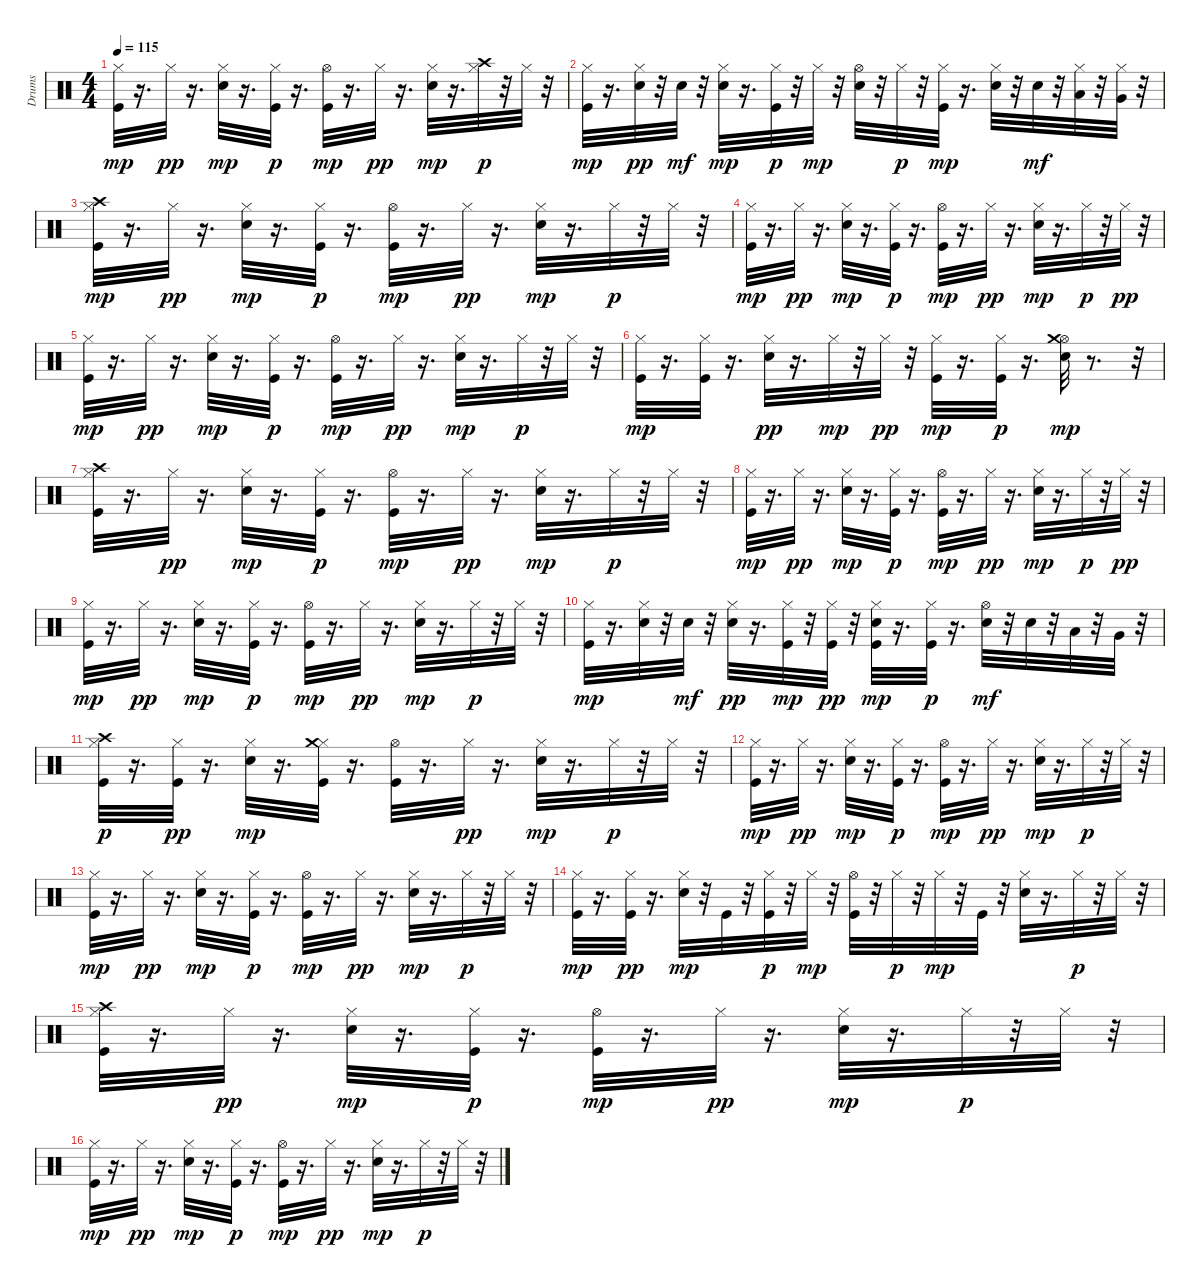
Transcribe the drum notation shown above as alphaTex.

\track ("Drums" "Drums") {instrument percussion}
\staff {score}
\articulation defaults
\ts (4 4)
\tempo 115
\clef neutral
\ks c
("Kick (hit)" "Hi-Hat (closed)").32{dy mp} r.16{d} "Hi-Hat (closed)".32{dy pp} r.16{d} ("Electric Snare (hit)" "Hi-Hat (closed)").32{dy mp} r.16{d} ("Kick (hit)" "Hi-Hat (closed)").32{dy p} r.16{d} ("Kick (hit)" "Hi-Hat (open)").32{dy mp} r.16{d} "Hi-Hat (closed)".32{dy pp} r.16{d} ("Electric Snare (hit)" "Hi-Hat (closed)").32{dy mp} r.16{d} ("Hi-Hat (closed)" "Crash high (hit)").32{dy p} r.32 "Hi-Hat (closed)".32 r.32 |
("Kick (hit)" "Hi-Hat (closed)").32{dy mp} r.16{d} ("Electric Snare (hit)" "Hi-Hat (closed)").32{dy pp} r.32 "Electric Snare (hit)".32{dy mf} r.32 ("Electric Snare (hit)" "Hi-Hat (closed)").32{dy mp} r.16{d} ("Kick (hit)" "Hi-Hat (closed)").32{dy p} r.32 "Hi-Hat (closed)".32{dy mp} r.32 ("Electric Snare (hit)" "Hi-Hat (open)").32 r.32 "Hi-Hat (closed)".32{dy p} r.32 ("Kick (hit)" "Hi-Hat (closed)").32{dy mp} r.16{d} ("Electric Snare (hit)" "Hi-Hat (closed)").32 r.32 "Electric Snare (hit)".32{dy mf} r.32 ("Hi-Hat (closed)" "Low Tom (hit)").32 r.32 ("Hi-Hat (closed)" "Very Low Tom (hit)").32 r.32 |
("Kick (hit)" "Hi-Hat (closed)" "Crash high (hit)").32{dy mp} r.16{d} "Hi-Hat (closed)".32{dy pp} r.16{d} ("Electric Snare (hit)" "Hi-Hat (closed)").32{dy mp} r.16{d} ("Kick (hit)" "Hi-Hat (closed)").32{dy p} r.16{d} ("Kick (hit)" "Hi-Hat (open)").32{dy mp} r.16{d} "Hi-Hat (closed)".32{dy pp} r.16{d} ("Electric Snare (hit)" "Hi-Hat (closed)").32{dy mp} r.16{d} "Hi-Hat (closed)".32{dy p} r.32 "Hi-Hat (closed)".32 r.32 |
("Kick (hit)" "Hi-Hat (closed)").32{dy mp} r.16{d} "Hi-Hat (closed)".32{dy pp} r.16{d} ("Electric Snare (hit)" "Hi-Hat (closed)").32{dy mp} r.16{d} ("Kick (hit)" "Hi-Hat (closed)").32{dy p} r.16{d} ("Kick (hit)" "Hi-Hat (open)").32{dy mp} r.16{d} "Hi-Hat (closed)".32{dy pp} r.16{d} ("Electric Snare (hit)" "Hi-Hat (closed)").32{dy mp} r.16{d} "Hi-Hat (closed)".32{dy p} r.32 "Hi-Hat (closed)".32{dy pp} r.32 |
("Kick (hit)" "Hi-Hat (closed)").32{dy mp} r.16{d} "Hi-Hat (closed)".32{dy pp} r.16{d} ("Electric Snare (hit)" "Hi-Hat (closed)").32{dy mp} r.16{d} ("Kick (hit)" "Hi-Hat (closed)").32{dy p} r.16{d} ("Kick (hit)" "Hi-Hat (open)").32{dy mp} r.16{d} "Hi-Hat (closed)".32{dy pp} r.16{d} ("Electric Snare (hit)" "Hi-Hat (closed)").32{dy mp} r.16{d} "Hi-Hat (closed)".32{dy p} r.32 "Hi-Hat (closed)".32 r.32 |
("Kick (hit)" "Hi-Hat (closed)").32{dy mp} r.16{d} ("Kick (hit)" "Hi-Hat (closed)").32 r.16{d} ("Electric Snare (hit)" "Hi-Hat (closed)").32{dy pp} r.16{d} "Hi-Hat (closed)".32{dy mp} r.32 "Hi-Hat (closed)".32{dy pp} r.32 ("Kick (hit)" "Hi-Hat (closed)").32{dy mp} r.16{d} ("Kick (hit)" "Hi-Hat (closed)").32{dy p} r.16{d} ("Electric Snare (hit)" "Hi-Hat (open)" "Crash medium (hit)").32{dy mp} r.8{d} r.32 |
("Kick (hit)" "Hi-Hat (closed)" "Crash high (hit)").32 r.16{d} "Hi-Hat (closed)".32{dy pp} r.16{d} ("Electric Snare (hit)" "Hi-Hat (closed)").32{dy mp} r.16{d} ("Kick (hit)" "Hi-Hat (closed)").32{dy p} r.16{d} ("Kick (hit)" "Hi-Hat (open)").32{dy mp} r.16{d} "Hi-Hat (closed)".32{dy pp} r.16{d} ("Electric Snare (hit)" "Hi-Hat (closed)").32{dy mp} r.16{d} "Hi-Hat (closed)".32{dy p} r.32 "Hi-Hat (closed)".32 r.32 |
("Kick (hit)" "Hi-Hat (closed)").32{dy mp} r.16{d} "Hi-Hat (closed)".32{dy pp} r.16{d} ("Electric Snare (hit)" "Hi-Hat (closed)").32{dy mp} r.16{d} ("Kick (hit)" "Hi-Hat (closed)").32{dy p} r.16{d} ("Kick (hit)" "Hi-Hat (open)").32{dy mp} r.16{d} "Hi-Hat (closed)".32{dy pp} r.16{d} ("Electric Snare (hit)" "Hi-Hat (closed)").32{dy mp} r.16{d} "Hi-Hat (closed)".32{dy p} r.32 "Hi-Hat (closed)".32{dy pp} r.32 |
("Kick (hit)" "Hi-Hat (closed)").32{dy mp} r.16{d} "Hi-Hat (closed)".32{dy pp} r.16{d} ("Electric Snare (hit)" "Hi-Hat (closed)").32{dy mp} r.16{d} ("Kick (hit)" "Hi-Hat (closed)").32{dy p} r.16{d} ("Kick (hit)" "Hi-Hat (open)").32{dy mp} r.16{d} "Hi-Hat (closed)".32{dy pp} r.16{d} ("Electric Snare (hit)" "Hi-Hat (closed)").32{dy mp} r.16{d} "Hi-Hat (closed)".32{dy p} r.32 "Hi-Hat (closed)".32 r.32 |
("Kick (hit)" "Hi-Hat (closed)").32{dy mp} r.16{d} ("Electric Snare (hit)" "Hi-Hat (closed)").32 r.32 "Electric Snare (hit)".32{dy mf} r.32 ("Electric Snare (hit)" "Hi-Hat (closed)").32{dy pp} r.16{d} ("Kick (hit)" "Hi-Hat (closed)").32{dy mp} r.32 ("Kick (hit)" "Hi-Hat (closed)").32{dy pp} r.32 ("Kick (hit)" "Electric Snare (hit)" "Hi-Hat (closed)").32{dy mp} r.16{d} ("Kick (hit)" "Hi-Hat (closed)").32{dy p} r.16{d} ("Electric Snare (hit)" "Hi-Hat (open)").32{dy mf} r.32 "Electric Snare (hit)".32 r.32 "Low Tom (hit)".32 r.32 "Very Low Tom (hit)".32 r.32 |
("Kick (hit)" "Hi-Hat (closed)" "Crash high (hit)").32{dy p} r.16{d} ("Kick (hit)" "Hi-Hat (closed)").32{dy pp} r.16{d} ("Electric Snare (hit)" "Hi-Hat (closed)").32{dy mp} r.16{d} ("Kick (hit)" "Hi-Hat (closed)" "Crash medium (hit)").32 r.16{d} ("Kick (hit)" "Hi-Hat (open)").32 r.16{d} "Hi-Hat (closed)".32{dy pp} r.16{d} ("Electric Snare (hit)" "Hi-Hat (closed)").32{dy mp} r.16{d} "Hi-Hat (closed)".32{dy p} r.32 "Hi-Hat (closed)".32 r.32 |
("Kick (hit)" "Hi-Hat (closed)").32{dy mp} r.16{d} "Hi-Hat (closed)".32{dy pp} r.16{d} ("Electric Snare (hit)" "Hi-Hat (closed)").32{dy mp} r.16{d} ("Kick (hit)" "Hi-Hat (closed)").32{dy p} r.16{d} ("Kick (hit)" "Hi-Hat (open)").32{dy mp} r.16{d} "Hi-Hat (closed)".32{dy pp} r.16{d} ("Electric Snare (hit)" "Hi-Hat (closed)").32{dy mp} r.16{d} "Hi-Hat (closed)".32{dy p} r.32 "Hi-Hat (closed)".32 r.32 |
("Kick (hit)" "Hi-Hat (closed)").32{dy mp} r.16{d} "Hi-Hat (closed)".32{dy pp} r.16{d} ("Electric Snare (hit)" "Hi-Hat (closed)").32{dy mp} r.16{d} ("Kick (hit)" "Hi-Hat (closed)").32{dy p} r.16{d} ("Kick (hit)" "Hi-Hat (open)").32{dy mp} r.16{d} "Hi-Hat (closed)".32{dy pp} r.16{d} ("Electric Snare (hit)" "Hi-Hat (closed)").32{dy mp} r.16{d} "Hi-Hat (closed)".32{dy p} r.32 "Hi-Hat (closed)".32 r.32 |
("Kick (hit)" "Hi-Hat (closed)").32{dy mp} r.16{d} ("Kick (hit)" "Hi-Hat (closed)").32{dy pp} r.16{d} ("Electric Snare (hit)" "Hi-Hat (closed)").32{dy mp} r.32 "Kick (hit)".32 r.32 ("Kick (hit)" "Hi-Hat (closed)").32{dy p} r.32 "Hi-Hat (closed)".32{dy mp} r.32 ("Kick (hit)" "Hi-Hat (open)").32 r.32 "Hi-Hat (closed)".32{dy p} r.32 "Hi-Hat (closed)".32{dy mp} r.32 "Kick (hit)".32 r.32 ("Electric Snare (hit)" "Hi-Hat (closed)").32 r.16{d} "Hi-Hat (closed)".32{dy p} r.32 "Hi-Hat (closed)".32 r.32 |
("Kick (hit)" "Hi-Hat (closed)" "Crash high (hit)").32 r.16{d} "Hi-Hat (closed)".32{dy pp} r.16{d} ("Electric Snare (hit)" "Hi-Hat (closed)").32{dy mp} r.16{d} ("Kick (hit)" "Hi-Hat (closed)").32{dy p} r.16{d} ("Kick (hit)" "Hi-Hat (open)").32{dy mp} r.16{d} "Hi-Hat (closed)".32{dy pp} r.16{d} ("Electric Snare (hit)" "Hi-Hat (closed)").32{dy mp} r.16{d} "Hi-Hat (closed)".32{dy p} r.32 "Hi-Hat (closed)".32 r.32 |
("Kick (hit)" "Hi-Hat (closed)").32{dy mp} r.16{d} "Hi-Hat (closed)".32{dy pp} r.16{d} ("Electric Snare (hit)" "Hi-Hat (closed)").32{dy mp} r.16{d} ("Kick (hit)" "Hi-Hat (closed)").32{dy p} r.16{d} ("Kick (hit)" "Hi-Hat (open)").32{dy mp} r.16{d} "Hi-Hat (closed)".32{dy pp} r.16{d} ("Electric Snare (hit)" "Hi-Hat (closed)").32{dy mp} r.16{d} "Hi-Hat (closed)".32{dy p} r.32 "Hi-Hat (closed)".32 r.32
